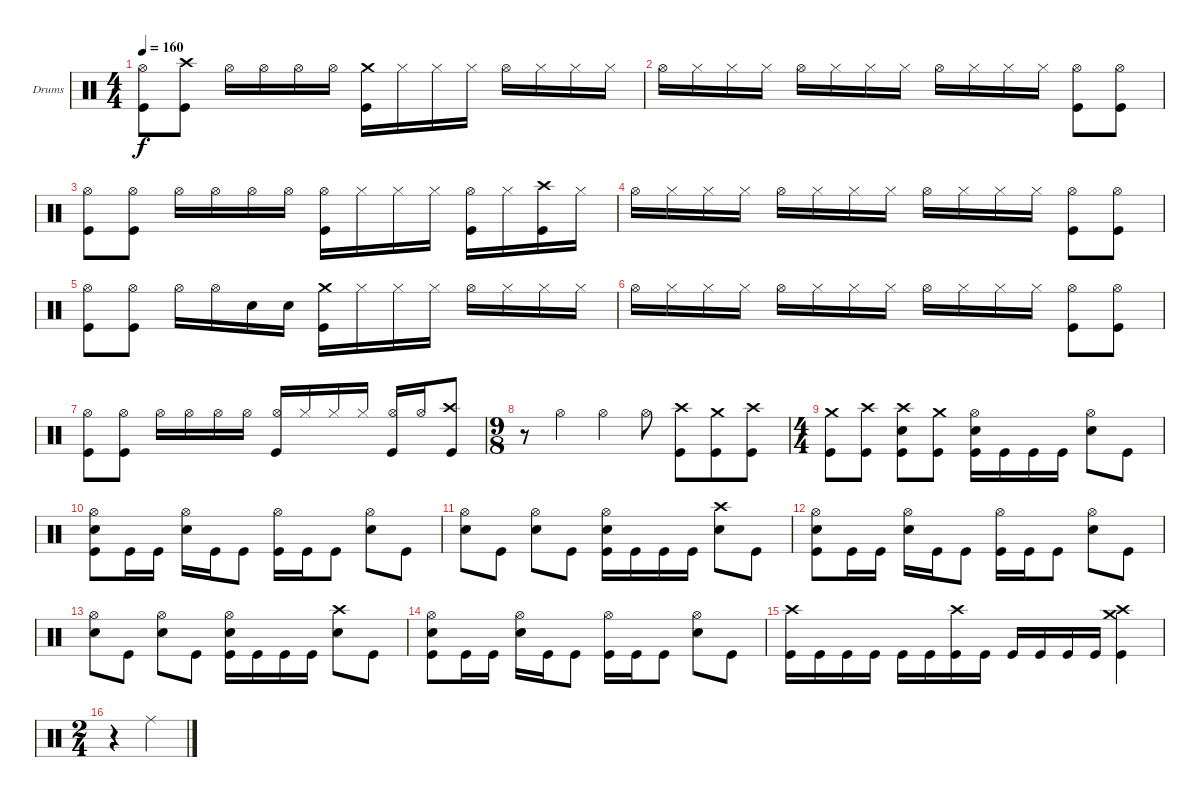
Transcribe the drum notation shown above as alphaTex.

\defaultSystemsLayout 4
\bracketExtendMode groupsimilarinstruments
\firstSystemTrackNameOrientation horizontal
\otherSystemsTrackNameOrientation horizontal
\track ("Moe Carlson" "Drums") {instrument percussion}
\staff {score}
\articulation defaults
\ts (4 4)
\tempo 160
\clef neutral
\ks c
("Hi-Hat (open)" "Kick (hit)").8{dy f} ("Crash high (hit)" "Kick (hit)").8 "Hi-Hat (open)".16 "Hi-Hat (open)".16 "Hi-Hat (open)".16 "Hi-Hat (open)".16 ("Crash medium (hit)" "Kick (hit)").16 "Hi-Hat (closed)".16 "Hi-Hat (closed)".16 "Hi-Hat (closed)".16 "Hi-Hat (open)".16 "Hi-Hat (closed)".16 "Hi-Hat (closed)".16 "Hi-Hat (closed)".16 |
"Hi-Hat (open)".16 "Hi-Hat (closed)".16 "Hi-Hat (closed)".16 "Hi-Hat (closed)".16 "Hi-Hat (open)".16 "Hi-Hat (closed)".16 "Hi-Hat (closed)".16 "Hi-Hat (closed)".16 "Hi-Hat (open)".16 "Hi-Hat (closed)".16 "Hi-Hat (closed)".16 "Hi-Hat (closed)".16 ("Hi-Hat (open)" "Kick (hit)").8 ("Hi-Hat (open)" "Kick (hit)").8 |
("Kick (hit)" "Hi-Hat (open)").8 ("Kick (hit)" "Hi-Hat (open)").8 "Hi-Hat (open)".16 "Hi-Hat (open)".16 "Hi-Hat (open)".16 "Hi-Hat (open)".16 ("Hi-Hat (open)" "Kick (hit)").16 "Hi-Hat (closed)".16 "Hi-Hat (closed)".16 "Hi-Hat (closed)".16 ("Hi-Hat (open)" "Kick (hit)").16 "Hi-Hat (closed)".16 ("Crash high (hit)" "Kick (hit)").16 "Hi-Hat (closed)".16 |
"Hi-Hat (open)".16 "Hi-Hat (closed)".16 "Hi-Hat (closed)".16 "Hi-Hat (closed)".16 "Hi-Hat (open)".16 "Hi-Hat (closed)".16 "Hi-Hat (closed)".16 "Hi-Hat (closed)".16 "Hi-Hat (open)".16 "Hi-Hat (closed)".16 "Hi-Hat (closed)".16 "Hi-Hat (closed)".16 ("Hi-Hat (open)" "Kick (hit)").8 ("Hi-Hat (open)" "Kick (hit)").8 |
("Kick (hit)" "Hi-Hat (open)").8 ("Kick (hit)" "Hi-Hat (open)").8 "Hi-Hat (open)".16 "Hi-Hat (open)".16 "Snare (hit) 2".16 "Snare (hit) 2".16 ("Crash medium (hit)" "Kick (hit)").16 "Hi-Hat (closed)".16 "Hi-Hat (closed)".16 "Hi-Hat (closed)".16 "Hi-Hat (open)".16 "Hi-Hat (closed)".16 "Hi-Hat (closed)".16 "Hi-Hat (closed)".16 |
"Hi-Hat (open)".16 "Hi-Hat (closed)".16 "Hi-Hat (closed)".16 "Hi-Hat (closed)".16 "Hi-Hat (open)".16 "Hi-Hat (closed)".16 "Hi-Hat (closed)".16 "Hi-Hat (closed)".16 "Hi-Hat (open)".16 "Hi-Hat (closed)".16 "Hi-Hat (closed)".16 "Hi-Hat (closed)".16 ("Hi-Hat (open)" "Kick (hit)").8 ("Hi-Hat (open)" "Kick (hit)").8 |
("Kick (hit)" "Hi-Hat (open)").8 ("Kick (hit)" "Hi-Hat (open)").8 "Hi-Hat (open)".16 "Hi-Hat (open)".16 "Hi-Hat (open)".16 "Hi-Hat (open)".16 ("Hi-Hat (open)" "Kick (hit)").16 "Hi-Hat (closed)".16 "Hi-Hat (closed)".16 "Hi-Hat (closed)".16 ("Hi-Hat (open)" "Kick (hit)").16{beam invert} "Hi-Hat (open)".16 ("Crash high (hit)" "Kick (hit)").8 |
\ts (9 8)
r.8 "Hi-Hat (open)".4 "Hi-Hat (open)".4 "Hi-Hat (open)".8 ("Crash high (hit)" "Kick (hit)").8 ("Crash medium (hit)" "Kick (hit)").8 ("Crash high (hit)" "Kick (hit)").8 |
\ts (4 4)
("Kick (hit)" "Crash medium (hit)").8 ("Kick (hit)" "Crash high (hit)").8 ("Kick (hit)" "Crash high (hit)" "Snare (hit) 2").8 ("Kick (hit)" "Crash medium (hit)").8 ("Kick (hit)" "Hi-Hat (open)" "Snare (hit) 2").16 "Kick (hit)".16 "Kick (hit)".16 "Kick (hit)".16 ("Snare (hit) 2" "Hi-Hat (open)").8 "Kick (hit)".8 |
("Kick (hit)" "Snare (hit) 2" "Hi-Hat (open)").8 "Kick (hit)".16 "Kick (hit)".16 ("Snare (hit) 2" "Hi-Hat (open)").16 "Kick (hit)".16 "Kick (hit)".8 ("Kick (hit)" "Hi-Hat (open)").16 "Kick (hit)".16 "Kick (hit)".8 ("Snare (hit) 2" "Hi-Hat (open)").8 "Kick (hit)".8 |
("Hi-Hat (open)" "Snare (hit) 2").8 "Kick (hit)".8 ("Snare (hit) 2" "Hi-Hat (open)").8 "Kick (hit)".8 ("Kick (hit)" "Hi-Hat (open)" "Snare (hit) 2").16 "Kick (hit)".16 "Kick (hit)".16 "Kick (hit)".16 ("Snare (hit) 2" "Crash high (hit)").8 "Kick (hit)".8 |
("Kick (hit)" "Snare (hit) 2" "Hi-Hat (open)").8 "Kick (hit)".16 "Kick (hit)".16 ("Snare (hit) 2" "Hi-Hat (open)").16 "Kick (hit)".16 "Kick (hit)".8 ("Kick (hit)" "Hi-Hat (open)").16 "Kick (hit)".16 "Kick (hit)".8 ("Snare (hit) 2" "Hi-Hat (open)").8 "Kick (hit)".8 |
("Hi-Hat (open)" "Snare (hit) 2").8 "Kick (hit)".8 ("Snare (hit) 2" "Hi-Hat (open)").8 "Kick (hit)".8 ("Kick (hit)" "Hi-Hat (open)" "Snare (hit) 2").16 "Kick (hit)".16 "Kick (hit)".16 "Kick (hit)".16 ("Snare (hit) 2" "Crash high (hit)").8 "Kick (hit)".8 |
("Kick (hit)" "Snare (hit) 2" "Hi-Hat (open)").8 "Kick (hit)".16 "Kick (hit)".16 ("Snare (hit) 2" "Hi-Hat (open)").16 "Kick (hit)".16 "Kick (hit)".8 ("Kick (hit)" "Hi-Hat (open)").16 "Kick (hit)".16 "Kick (hit)".8 ("Snare (hit) 2" "Hi-Hat (open)").8 "Kick (hit)".8 |
("Crash high (hit)" "Kick (hit)").16 "Kick (hit)".16 "Kick (hit)".16 "Kick (hit)".16 "Kick (hit)".16 "Kick (hit)".16 ("Kick (hit)" "Crash high (hit)").16 "Kick (hit)".16 "Kick (hit)".16 "Kick (hit)".16 "Kick (hit)".16 "Kick (hit)".16 ("Kick (hit)" "Crash high (hit)" "Crash medium (hit)").4 |
\ts (2 4)
r.4 "Ride (middle)".4
